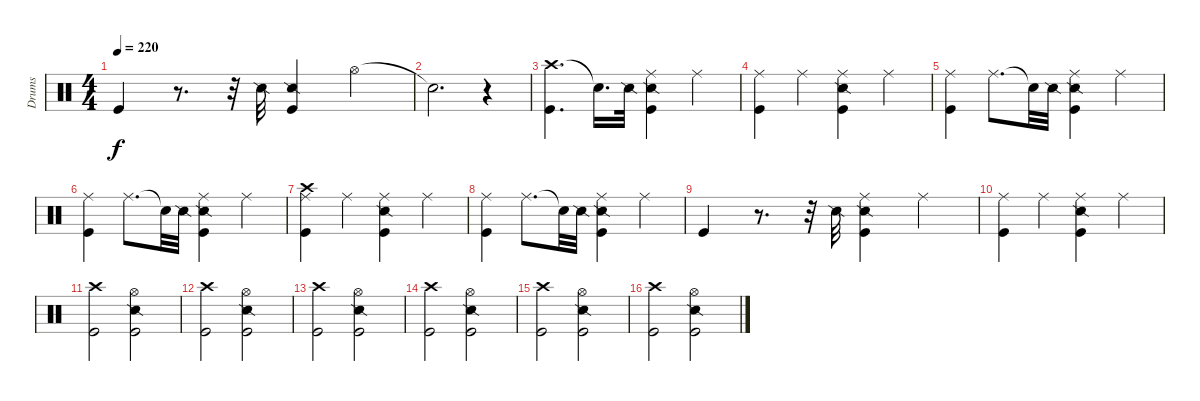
\track ("Drums" "Drums") {instrument percussion}
\staff {score}
\articulation defaults
\ts (4 4)
\tempo 220
\clef neutral
\ks c "Kick (hit)".4{dy f}
r.8{d} r.32 "Snare (side stick) 2".32 ("Snare (side stick) 2" "Kick (hit)").4 "Hi-Hat (open)".4 |
"Snare (hit)"{t}.2{d} r.4 |
("Crash high (hit)" "Kick (hit)").4{d} "Snare (hit)"{t}.16{d} "Snare (side stick) 2".32 ("Ride (middle)" "Snare (side stick) 2" "Kick (hit)").4 "Ride (middle)".4 |
("Ride (middle)" "Kick (hit)").4 "Ride (middle)".4 ("Ride (middle)" "Snare (side stick) 2" "Kick (hit)").4 "Ride (middle)".4 |
("Ride (middle)" "Kick (hit)").4 "Ride (middle)".8{d} "Snare (hit)"{t}.32 "Snare (side stick) 2".32 ("Ride (middle)" "Snare (side stick) 2" "Kick (hit)").4 "Ride (middle)".4 |
("Ride (middle)" "Kick (hit)").4 "Ride (middle)".8{d} "Snare (hit)"{t}.32 "Snare (side stick) 2".32 ("Ride (middle)" "Snare (side stick) 2" "Kick (hit)").4 "Ride (middle)".4 |
("Ride (middle)" "Crash high (hit)" "Kick (hit)").4 "Ride (middle)".4 ("Ride (middle)" "Snare (side stick) 2" "Kick (hit)").4 "Ride (middle)".4 |
("Ride (middle)" "Kick (hit)").4 "Ride (middle)".8{d} "Snare (hit)"{t}.32 "Snare (side stick) 2".32 ("Ride (middle)" "Snare (side stick) 2" "Kick (hit)").4 "Ride (middle)".4 |
"Kick (hit)".4 r.8{d} r.32 "Snare (side stick) 2".32 ("Ride (middle)" "Snare (side stick) 2" "Kick (hit)").4 "Ride (middle)".4 |
("Ride (middle)" "Kick (hit)").4 "Ride (middle)".4 ("Ride (middle)" "Snare (side stick) 2" "Kick (hit)").4 "Ride (middle)".4 |
("Crash high (hit)" "Kick (hit)").2 ("Hi-Hat (open)" "Snare (side stick) 2" "Kick (hit)").2 |
("Crash high (hit)" "Kick (hit)").2 ("Hi-Hat (open)" "Snare (side stick) 2" "Kick (hit)").2 |
("Crash high (hit)" "Kick (hit)").2 ("Hi-Hat (open)" "Snare (side stick) 2" "Kick (hit)").2 |
("Crash high (hit)" "Kick (hit)").2 ("Hi-Hat (open)" "Snare (side stick) 2" "Kick (hit)").2 |
("Crash high (hit)" "Kick (hit)").2 ("Hi-Hat (open)" "Snare (side stick) 2" "Kick (hit)").2 |
("Crash high (hit)" "Kick (hit)").2 ("Hi-Hat (open)" "Snare (side stick) 2" "Kick (hit)").2
